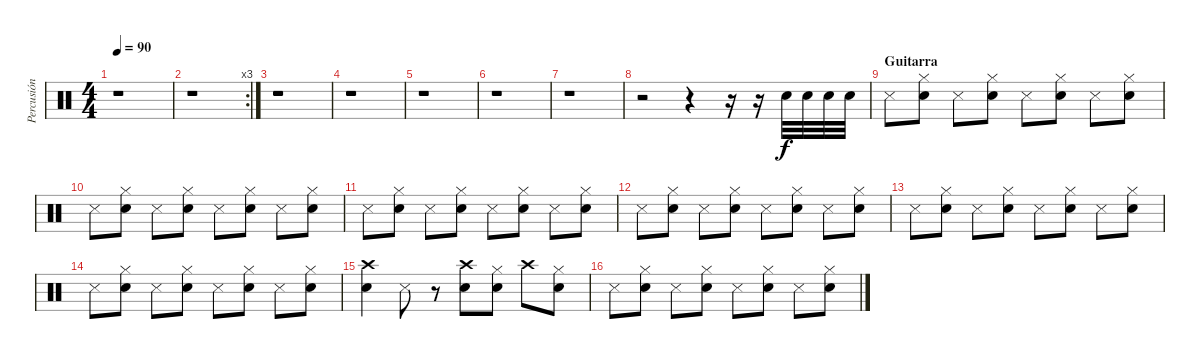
\track ("Percusión" "Percusión") {instrument percussion}
\staff {score}
\articulation defaults
\ts (4 4)
\tempo 90
\clef neutral
\ks c
r.1{dy f} |
\rc 3
r.1 |
r.1 |
r.1 |
r.1 |
r.1 |
r.1 |
r.2 r.4 r.16 r.16 "Electric Snare (hit)".32{volume 10} "Electric Snare (hit)".32{volume 12} "Electric Snare (hit)".32{volume 14} "Electric Snare (hit)".32{volume 15} |
\section ("" "Guitarra")
"Snare (side stick) 3".8 ("Electric Snare (hit)" "Hi-Hat (closed)").8 "Snare (side stick) 3".8 ("Electric Snare (hit)" "Hi-Hat (closed)").8 "Snare (side stick) 3".8 ("Electric Snare (hit)" "Hi-Hat (closed)").8 "Snare (side stick) 3".8 ("Electric Snare (hit)" "Hi-Hat (closed)").8 |
"Snare (side stick) 3".8 ("Electric Snare (hit)" "Hi-Hat (closed)").8 "Snare (side stick) 3".8 ("Electric Snare (hit)" "Hi-Hat (closed)").8 "Snare (side stick) 3".8 ("Electric Snare (hit)" "Hi-Hat (closed)").8 "Snare (side stick) 3".8 ("Electric Snare (hit)" "Hi-Hat (closed)").8 |
"Snare (side stick) 3".8 ("Electric Snare (hit)" "Hi-Hat (closed)").8 "Snare (side stick) 3".8 ("Electric Snare (hit)" "Hi-Hat (closed)").8 "Snare (side stick) 3".8 ("Electric Snare (hit)" "Hi-Hat (closed)").8 "Snare (side stick) 3".8 ("Electric Snare (hit)" "Hi-Hat (closed)").8 |
"Snare (side stick) 3".8 ("Electric Snare (hit)" "Hi-Hat (closed)").8 "Snare (side stick) 3".8 ("Electric Snare (hit)" "Hi-Hat (closed)").8 "Snare (side stick) 3".8 ("Electric Snare (hit)" "Hi-Hat (closed)").8 "Snare (side stick) 3".8 ("Electric Snare (hit)" "Hi-Hat (closed)").8 |
"Snare (side stick) 3".8 ("Electric Snare (hit)" "Hi-Hat (closed)").8 "Snare (side stick) 3".8 ("Electric Snare (hit)" "Hi-Hat (closed)").8 "Snare (side stick) 3".8 ("Electric Snare (hit)" "Hi-Hat (closed)").8 "Snare (side stick) 3".8 ("Electric Snare (hit)" "Hi-Hat (closed)").8 |
"Snare (side stick) 3".8 ("Electric Snare (hit)" "Hi-Hat (closed)").8 "Snare (side stick) 3".8 ("Electric Snare (hit)" "Hi-Hat (closed)").8 "Snare (side stick) 3".8 ("Electric Snare (hit)" "Hi-Hat (closed)").8 "Snare (side stick) 3".8 ("Electric Snare (hit)" "Hi-Hat (closed)").8 |
("Crash high (hit)" "Electric Snare (hit)").4 "Snare (side stick) 3".8 r.8 ("Crash high (hit)" "Electric Snare (hit)").8 ("Electric Snare (hit)" "Hi-Hat (closed)").8 "Crash high (hit)".8 ("Electric Snare (hit)" "Hi-Hat (closed)").8 |
"Snare (side stick) 3".8 ("Electric Snare (hit)" "Hi-Hat (closed)").8 "Snare (side stick) 3".8 ("Electric Snare (hit)" "Hi-Hat (closed)").8 "Snare (side stick) 3".8 ("Electric Snare (hit)" "Hi-Hat (closed)").8 "Snare (side stick) 3".8 ("Electric Snare (hit)" "Hi-Hat (closed)").8
